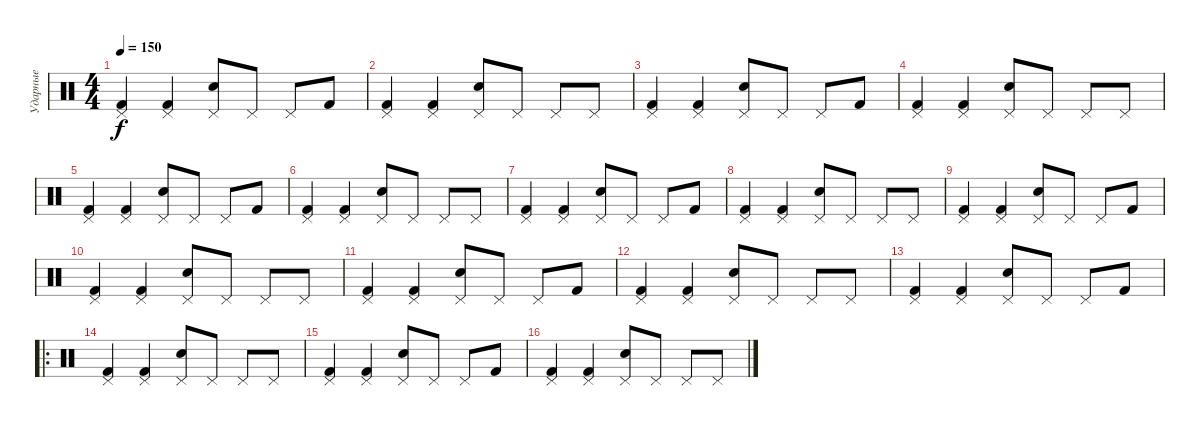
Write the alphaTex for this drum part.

\track ("Ударные" "Ударные") {instrument percussion}
\staff {score}
\articulation defaults
\ts (4 4)
\tempo 150
\clef neutral
\ks c
("Pedal Hi-Hat (hit)" "Kick (hit) 2").4{dy f} ("Pedal Hi-Hat (hit)" "Kick (hit) 2").4 ("Pedal Hi-Hat (hit)" "Snare (hit) 2").8 "Pedal Hi-Hat (hit)".8 "Pedal Hi-Hat (hit)".8 "Kick (hit) 2".8 |
("Pedal Hi-Hat (hit)" "Kick (hit) 2").4 ("Pedal Hi-Hat (hit)" "Kick (hit) 2").4 ("Pedal Hi-Hat (hit)" "Snare (hit) 2").8 "Pedal Hi-Hat (hit)".8 "Pedal Hi-Hat (hit)".8 "Pedal Hi-Hat (hit)".8 |
("Pedal Hi-Hat (hit)" "Kick (hit) 2").4 ("Pedal Hi-Hat (hit)" "Kick (hit) 2").4 ("Pedal Hi-Hat (hit)" "Snare (hit) 2").8 "Pedal Hi-Hat (hit)".8 "Pedal Hi-Hat (hit)".8 "Kick (hit) 2".8 |
("Pedal Hi-Hat (hit)" "Kick (hit) 2").4 ("Pedal Hi-Hat (hit)" "Kick (hit) 2").4 ("Pedal Hi-Hat (hit)" "Snare (hit) 2").8 "Pedal Hi-Hat (hit)".8 "Pedal Hi-Hat (hit)".8 "Pedal Hi-Hat (hit)".8 |
("Pedal Hi-Hat (hit)" "Kick (hit) 2").4 ("Pedal Hi-Hat (hit)" "Kick (hit) 2").4 ("Pedal Hi-Hat (hit)" "Snare (hit) 2").8 "Pedal Hi-Hat (hit)".8 "Pedal Hi-Hat (hit)".8 "Kick (hit) 2".8 |
("Pedal Hi-Hat (hit)" "Kick (hit) 2").4 ("Pedal Hi-Hat (hit)" "Kick (hit) 2").4 ("Pedal Hi-Hat (hit)" "Snare (hit) 2").8 "Pedal Hi-Hat (hit)".8 "Pedal Hi-Hat (hit)".8 "Pedal Hi-Hat (hit)".8 |
("Pedal Hi-Hat (hit)" "Kick (hit) 2").4 ("Pedal Hi-Hat (hit)" "Kick (hit) 2").4 ("Pedal Hi-Hat (hit)" "Snare (hit) 2").8 "Pedal Hi-Hat (hit)".8 "Pedal Hi-Hat (hit)".8 "Kick (hit) 2".8 |
("Pedal Hi-Hat (hit)" "Kick (hit) 2").4 ("Pedal Hi-Hat (hit)" "Kick (hit) 2").4 ("Pedal Hi-Hat (hit)" "Snare (hit) 2").8 "Pedal Hi-Hat (hit)".8 "Pedal Hi-Hat (hit)".8 "Pedal Hi-Hat (hit)".8 |
("Pedal Hi-Hat (hit)" "Kick (hit) 2").4 ("Pedal Hi-Hat (hit)" "Kick (hit) 2").4 ("Pedal Hi-Hat (hit)" "Snare (hit) 2").8 "Pedal Hi-Hat (hit)".8 "Pedal Hi-Hat (hit)".8 "Kick (hit) 2".8 |
("Pedal Hi-Hat (hit)" "Kick (hit) 2").4 ("Pedal Hi-Hat (hit)" "Kick (hit) 2").4 ("Pedal Hi-Hat (hit)" "Snare (hit) 2").8 "Pedal Hi-Hat (hit)".8 "Pedal Hi-Hat (hit)".8 "Pedal Hi-Hat (hit)".8 |
("Pedal Hi-Hat (hit)" "Kick (hit) 2").4 ("Pedal Hi-Hat (hit)" "Kick (hit) 2").4 ("Pedal Hi-Hat (hit)" "Snare (hit) 2").8 "Pedal Hi-Hat (hit)".8 "Pedal Hi-Hat (hit)".8 "Kick (hit) 2".8 |
("Pedal Hi-Hat (hit)" "Kick (hit) 2").4 ("Pedal Hi-Hat (hit)" "Kick (hit) 2").4 ("Pedal Hi-Hat (hit)" "Snare (hit) 2").8 "Pedal Hi-Hat (hit)".8 "Pedal Hi-Hat (hit)".8 "Pedal Hi-Hat (hit)".8 |
("Pedal Hi-Hat (hit)" "Kick (hit) 2").4 ("Pedal Hi-Hat (hit)" "Kick (hit) 2").4 ("Pedal Hi-Hat (hit)" "Snare (hit) 2").8 "Pedal Hi-Hat (hit)".8 "Pedal Hi-Hat (hit)".8 "Kick (hit) 2".8 |
\ro
("Pedal Hi-Hat (hit)" "Kick (hit) 2").4 ("Pedal Hi-Hat (hit)" "Kick (hit) 2").4 ("Pedal Hi-Hat (hit)" "Snare (hit) 2").8 "Pedal Hi-Hat (hit)".8 "Pedal Hi-Hat (hit)".8 "Pedal Hi-Hat (hit)".8 |
("Pedal Hi-Hat (hit)" "Kick (hit) 2").4 ("Pedal Hi-Hat (hit)" "Kick (hit) 2").4 ("Pedal Hi-Hat (hit)" "Snare (hit) 2").8 "Pedal Hi-Hat (hit)".8 "Pedal Hi-Hat (hit)".8 "Kick (hit) 2".8 |
("Pedal Hi-Hat (hit)" "Kick (hit) 2").4 ("Pedal Hi-Hat (hit)" "Kick (hit) 2").4 ("Pedal Hi-Hat (hit)" "Snare (hit) 2").8 "Pedal Hi-Hat (hit)".8 "Pedal Hi-Hat (hit)".8 "Pedal Hi-Hat (hit)".8
